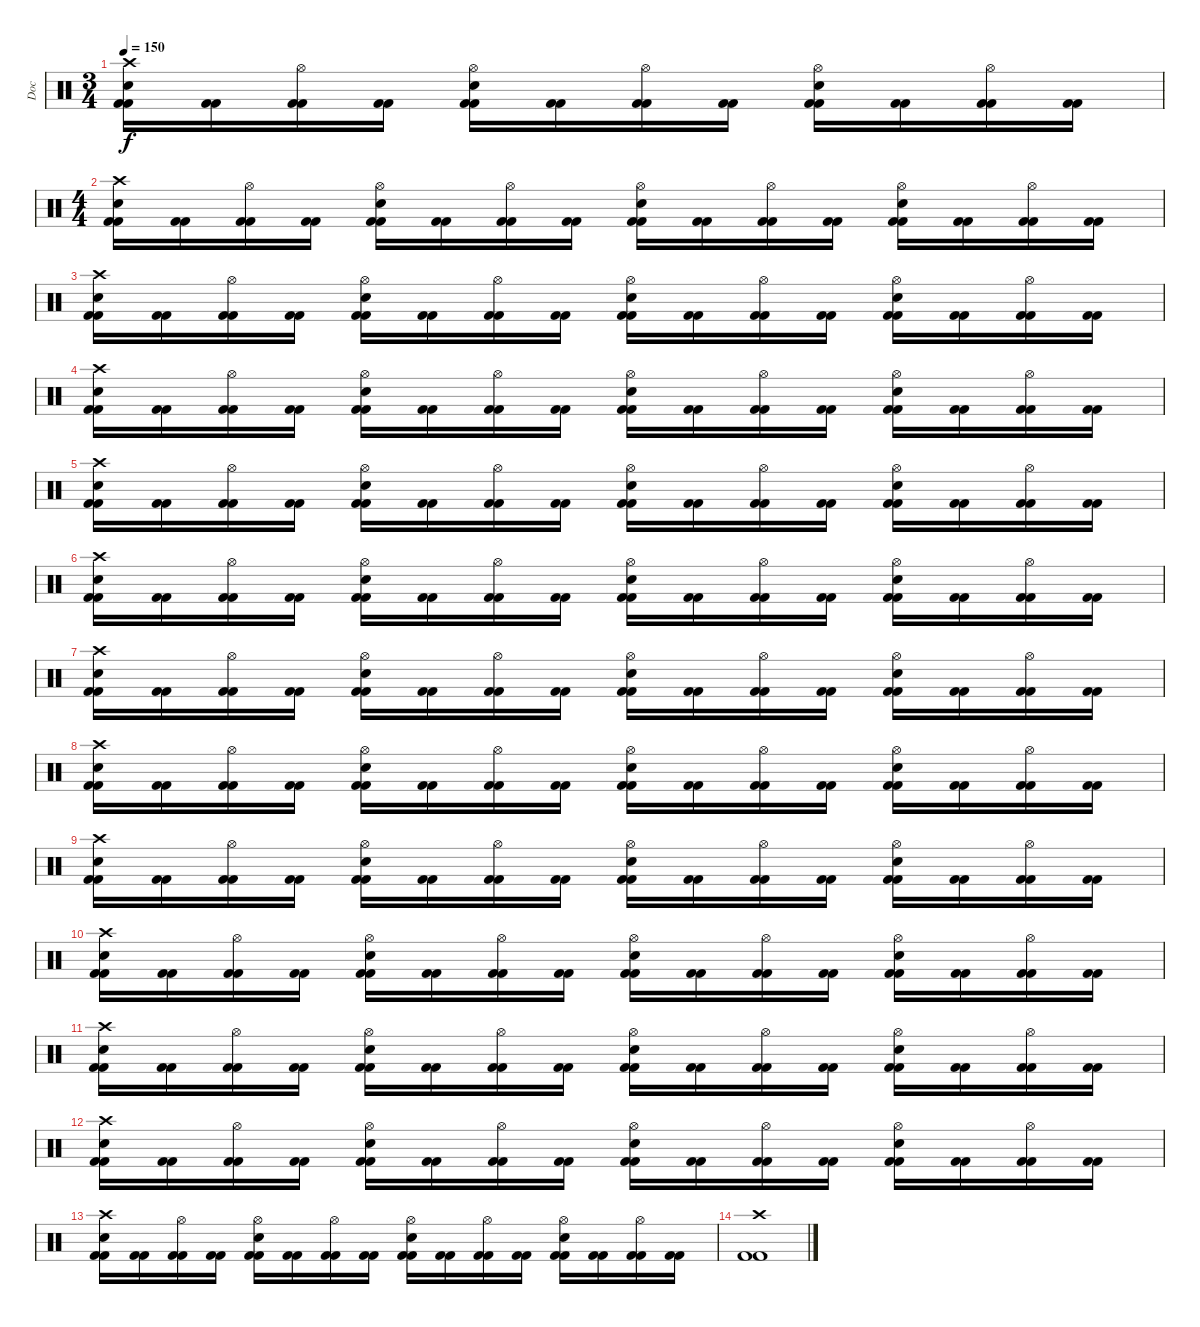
\track ("Doc" "Doc") {instrument percussion}
\staff {score}
\articulation defaults
\ts (3 4)
\tempo 150
\clef neutral
\ks c
("Kick (hit) 2" "Crash high (hit)" "Electric Snare (hit)" "Kick (hit) 2").16{dy f} ("Kick (hit) 2" "Kick (hit) 2").16 ("Kick (hit) 2" "Hi-Hat (open)" "Kick (hit) 2").16 ("Kick (hit) 2" "Kick (hit) 2").16 ("Kick (hit) 2" "Hi-Hat (open)" "Electric Snare (hit)" "Kick (hit) 2").16 ("Kick (hit) 2" "Kick (hit) 2").16 ("Kick (hit) 2" "Hi-Hat (open)" "Kick (hit) 2").16 ("Kick (hit) 2" "Kick (hit) 2").16 ("Kick (hit) 2" "Hi-Hat (open)" "Electric Snare (hit)" "Kick (hit) 2").16 ("Kick (hit) 2" "Kick (hit) 2").16 ("Kick (hit) 2" "Hi-Hat (open)" "Kick (hit) 2").16 ("Kick (hit) 2" "Kick (hit) 2").16 |
\ts (4 4)
("Kick (hit) 2" "Crash high (hit)" "Electric Snare (hit)" "Kick (hit) 2").16 ("Kick (hit) 2" "Kick (hit) 2").16 ("Kick (hit) 2" "Hi-Hat (open)" "Kick (hit) 2").16 ("Kick (hit) 2" "Kick (hit) 2").16 ("Kick (hit) 2" "Hi-Hat (open)" "Electric Snare (hit)" "Kick (hit) 2").16 ("Kick (hit) 2" "Kick (hit) 2").16 ("Kick (hit) 2" "Hi-Hat (open)" "Kick (hit) 2").16 ("Kick (hit) 2" "Kick (hit) 2").16 ("Kick (hit) 2" "Hi-Hat (open)" "Electric Snare (hit)" "Kick (hit) 2").16 ("Kick (hit) 2" "Kick (hit) 2").16 ("Kick (hit) 2" "Hi-Hat (open)" "Kick (hit) 2").16 ("Kick (hit) 2" "Kick (hit) 2").16 ("Kick (hit) 2" "Hi-Hat (open)" "Electric Snare (hit)" "Kick (hit) 2").16 ("Kick (hit) 2" "Kick (hit) 2").16 ("Kick (hit) 2" "Hi-Hat (open)" "Kick (hit) 2").16 ("Kick (hit) 2" "Kick (hit) 2").16 |
("Kick (hit) 2" "Crash high (hit)" "Electric Snare (hit)" "Kick (hit) 2").16 ("Kick (hit) 2" "Kick (hit) 2").16 ("Kick (hit) 2" "Hi-Hat (open)" "Kick (hit) 2").16 ("Kick (hit) 2" "Kick (hit) 2").16 ("Kick (hit) 2" "Hi-Hat (open)" "Electric Snare (hit)" "Kick (hit) 2").16 ("Kick (hit) 2" "Kick (hit) 2").16 ("Kick (hit) 2" "Hi-Hat (open)" "Kick (hit) 2").16 ("Kick (hit) 2" "Kick (hit) 2").16 ("Kick (hit) 2" "Hi-Hat (open)" "Electric Snare (hit)" "Kick (hit) 2").16 ("Kick (hit) 2" "Kick (hit) 2").16 ("Kick (hit) 2" "Hi-Hat (open)" "Kick (hit) 2").16 ("Kick (hit) 2" "Kick (hit) 2").16 ("Kick (hit) 2" "Hi-Hat (open)" "Electric Snare (hit)" "Kick (hit) 2").16 ("Kick (hit) 2" "Kick (hit) 2").16 ("Kick (hit) 2" "Hi-Hat (open)" "Kick (hit) 2").16 ("Kick (hit) 2" "Kick (hit) 2").16 |
("Kick (hit) 2" "Crash high (hit)" "Electric Snare (hit)" "Kick (hit) 2").16 ("Kick (hit) 2" "Kick (hit) 2").16 ("Kick (hit) 2" "Hi-Hat (open)" "Kick (hit) 2").16 ("Kick (hit) 2" "Kick (hit) 2").16 ("Kick (hit) 2" "Hi-Hat (open)" "Electric Snare (hit)" "Kick (hit) 2").16 ("Kick (hit) 2" "Kick (hit) 2").16 ("Kick (hit) 2" "Hi-Hat (open)" "Kick (hit) 2").16 ("Kick (hit) 2" "Kick (hit) 2").16 ("Kick (hit) 2" "Hi-Hat (open)" "Electric Snare (hit)" "Kick (hit) 2").16 ("Kick (hit) 2" "Kick (hit) 2").16 ("Kick (hit) 2" "Hi-Hat (open)" "Kick (hit) 2").16 ("Kick (hit) 2" "Kick (hit) 2").16 ("Kick (hit) 2" "Hi-Hat (open)" "Electric Snare (hit)" "Kick (hit) 2").16 ("Kick (hit) 2" "Kick (hit) 2").16 ("Kick (hit) 2" "Hi-Hat (open)" "Kick (hit) 2").16 ("Kick (hit) 2" "Kick (hit) 2").16 |
("Kick (hit) 2" "Crash high (hit)" "Electric Snare (hit)" "Kick (hit) 2").16 ("Kick (hit) 2" "Kick (hit) 2").16 ("Kick (hit) 2" "Hi-Hat (open)" "Kick (hit) 2").16 ("Kick (hit) 2" "Kick (hit) 2").16 ("Kick (hit) 2" "Hi-Hat (open)" "Electric Snare (hit)" "Kick (hit) 2").16 ("Kick (hit) 2" "Kick (hit) 2").16 ("Kick (hit) 2" "Hi-Hat (open)" "Kick (hit) 2").16 ("Kick (hit) 2" "Kick (hit) 2").16 ("Kick (hit) 2" "Hi-Hat (open)" "Electric Snare (hit)" "Kick (hit) 2").16 ("Kick (hit) 2" "Kick (hit) 2").16 ("Kick (hit) 2" "Hi-Hat (open)" "Kick (hit) 2").16 ("Kick (hit) 2" "Kick (hit) 2").16 ("Kick (hit) 2" "Hi-Hat (open)" "Electric Snare (hit)" "Kick (hit) 2").16 ("Kick (hit) 2" "Kick (hit) 2").16 ("Kick (hit) 2" "Hi-Hat (open)" "Kick (hit) 2").16 ("Kick (hit) 2" "Kick (hit) 2").16 |
("Kick (hit) 2" "Crash high (hit)" "Electric Snare (hit)" "Kick (hit) 2").16 ("Kick (hit) 2" "Kick (hit) 2").16 ("Kick (hit) 2" "Hi-Hat (open)" "Kick (hit) 2").16 ("Kick (hit) 2" "Kick (hit) 2").16 ("Kick (hit) 2" "Hi-Hat (open)" "Electric Snare (hit)" "Kick (hit) 2").16 ("Kick (hit) 2" "Kick (hit) 2").16 ("Kick (hit) 2" "Hi-Hat (open)" "Kick (hit) 2").16 ("Kick (hit) 2" "Kick (hit) 2").16 ("Kick (hit) 2" "Hi-Hat (open)" "Electric Snare (hit)" "Kick (hit) 2").16 ("Kick (hit) 2" "Kick (hit) 2").16 ("Kick (hit) 2" "Hi-Hat (open)" "Kick (hit) 2").16 ("Kick (hit) 2" "Kick (hit) 2").16 ("Kick (hit) 2" "Hi-Hat (open)" "Electric Snare (hit)" "Kick (hit) 2").16 ("Kick (hit) 2" "Kick (hit) 2").16 ("Kick (hit) 2" "Hi-Hat (open)" "Kick (hit) 2").16 ("Kick (hit) 2" "Kick (hit) 2").16 |
("Kick (hit) 2" "Crash high (hit)" "Electric Snare (hit)" "Kick (hit) 2").16 ("Kick (hit) 2" "Kick (hit) 2").16 ("Kick (hit) 2" "Hi-Hat (open)" "Kick (hit) 2").16 ("Kick (hit) 2" "Kick (hit) 2").16 ("Kick (hit) 2" "Hi-Hat (open)" "Electric Snare (hit)" "Kick (hit) 2").16 ("Kick (hit) 2" "Kick (hit) 2").16 ("Kick (hit) 2" "Hi-Hat (open)" "Kick (hit) 2").16 ("Kick (hit) 2" "Kick (hit) 2").16 ("Kick (hit) 2" "Hi-Hat (open)" "Electric Snare (hit)" "Kick (hit) 2").16 ("Kick (hit) 2" "Kick (hit) 2").16 ("Kick (hit) 2" "Hi-Hat (open)" "Kick (hit) 2").16 ("Kick (hit) 2" "Kick (hit) 2").16 ("Kick (hit) 2" "Hi-Hat (open)" "Electric Snare (hit)" "Kick (hit) 2").16 ("Kick (hit) 2" "Kick (hit) 2").16 ("Kick (hit) 2" "Hi-Hat (open)" "Kick (hit) 2").16 ("Kick (hit) 2" "Kick (hit) 2").16 |
("Kick (hit) 2" "Crash high (hit)" "Electric Snare (hit)" "Kick (hit) 2").16 ("Kick (hit) 2" "Kick (hit) 2").16 ("Kick (hit) 2" "Hi-Hat (open)" "Kick (hit) 2").16 ("Kick (hit) 2" "Kick (hit) 2").16 ("Kick (hit) 2" "Hi-Hat (open)" "Electric Snare (hit)" "Kick (hit) 2").16 ("Kick (hit) 2" "Kick (hit) 2").16 ("Kick (hit) 2" "Hi-Hat (open)" "Kick (hit) 2").16 ("Kick (hit) 2" "Kick (hit) 2").16 ("Kick (hit) 2" "Hi-Hat (open)" "Electric Snare (hit)" "Kick (hit) 2").16 ("Kick (hit) 2" "Kick (hit) 2").16 ("Kick (hit) 2" "Hi-Hat (open)" "Kick (hit) 2").16 ("Kick (hit) 2" "Kick (hit) 2").16 ("Kick (hit) 2" "Hi-Hat (open)" "Electric Snare (hit)" "Kick (hit) 2").16 ("Kick (hit) 2" "Kick (hit) 2").16 ("Kick (hit) 2" "Hi-Hat (open)" "Kick (hit) 2").16 ("Kick (hit) 2" "Kick (hit) 2").16 |
("Kick (hit) 2" "Crash high (hit)" "Electric Snare (hit)" "Kick (hit) 2").16 ("Kick (hit) 2" "Kick (hit) 2").16 ("Kick (hit) 2" "Hi-Hat (open)" "Kick (hit) 2").16 ("Kick (hit) 2" "Kick (hit) 2").16 ("Kick (hit) 2" "Hi-Hat (open)" "Electric Snare (hit)" "Kick (hit) 2").16 ("Kick (hit) 2" "Kick (hit) 2").16 ("Kick (hit) 2" "Hi-Hat (open)" "Kick (hit) 2").16 ("Kick (hit) 2" "Kick (hit) 2").16 ("Kick (hit) 2" "Hi-Hat (open)" "Electric Snare (hit)" "Kick (hit) 2").16 ("Kick (hit) 2" "Kick (hit) 2").16 ("Kick (hit) 2" "Hi-Hat (open)" "Kick (hit) 2").16 ("Kick (hit) 2" "Kick (hit) 2").16 ("Kick (hit) 2" "Hi-Hat (open)" "Electric Snare (hit)" "Kick (hit) 2").16 ("Kick (hit) 2" "Kick (hit) 2").16 ("Kick (hit) 2" "Hi-Hat (open)" "Kick (hit) 2").16 ("Kick (hit) 2" "Kick (hit) 2").16 |
("Kick (hit) 2" "Crash high (hit)" "Electric Snare (hit)" "Kick (hit) 2").16 ("Kick (hit) 2" "Kick (hit) 2").16 ("Kick (hit) 2" "Hi-Hat (open)" "Kick (hit) 2").16 ("Kick (hit) 2" "Kick (hit) 2").16 ("Kick (hit) 2" "Hi-Hat (open)" "Electric Snare (hit)" "Kick (hit) 2").16 ("Kick (hit) 2" "Kick (hit) 2").16 ("Kick (hit) 2" "Hi-Hat (open)" "Kick (hit) 2").16 ("Kick (hit) 2" "Kick (hit) 2").16 ("Kick (hit) 2" "Hi-Hat (open)" "Electric Snare (hit)" "Kick (hit) 2").16 ("Kick (hit) 2" "Kick (hit) 2").16 ("Kick (hit) 2" "Hi-Hat (open)" "Kick (hit) 2").16 ("Kick (hit) 2" "Kick (hit) 2").16 ("Kick (hit) 2" "Hi-Hat (open)" "Electric Snare (hit)" "Kick (hit) 2").16 ("Kick (hit) 2" "Kick (hit) 2").16 ("Kick (hit) 2" "Hi-Hat (open)" "Kick (hit) 2").16 ("Kick (hit) 2" "Kick (hit) 2").16 |
("Kick (hit) 2" "Crash high (hit)" "Electric Snare (hit)" "Kick (hit) 2").16 ("Kick (hit) 2" "Kick (hit) 2").16 ("Kick (hit) 2" "Hi-Hat (open)" "Kick (hit) 2").16 ("Kick (hit) 2" "Kick (hit) 2").16 ("Kick (hit) 2" "Hi-Hat (open)" "Electric Snare (hit)" "Kick (hit) 2").16 ("Kick (hit) 2" "Kick (hit) 2").16 ("Kick (hit) 2" "Hi-Hat (open)" "Kick (hit) 2").16 ("Kick (hit) 2" "Kick (hit) 2").16 ("Kick (hit) 2" "Hi-Hat (open)" "Electric Snare (hit)" "Kick (hit) 2").16 ("Kick (hit) 2" "Kick (hit) 2").16 ("Kick (hit) 2" "Hi-Hat (open)" "Kick (hit) 2").16 ("Kick (hit) 2" "Kick (hit) 2").16 ("Kick (hit) 2" "Hi-Hat (open)" "Electric Snare (hit)" "Kick (hit) 2").16 ("Kick (hit) 2" "Kick (hit) 2").16 ("Kick (hit) 2" "Hi-Hat (open)" "Kick (hit) 2").16 ("Kick (hit) 2" "Kick (hit) 2").16 |
("Kick (hit) 2" "Crash high (hit)" "Electric Snare (hit)" "Kick (hit) 2").16 ("Kick (hit) 2" "Kick (hit) 2").16 ("Kick (hit) 2" "Hi-Hat (open)" "Kick (hit) 2").16 ("Kick (hit) 2" "Kick (hit) 2").16 ("Kick (hit) 2" "Hi-Hat (open)" "Electric Snare (hit)" "Kick (hit) 2").16 ("Kick (hit) 2" "Kick (hit) 2").16 ("Kick (hit) 2" "Hi-Hat (open)" "Kick (hit) 2").16 ("Kick (hit) 2" "Kick (hit) 2").16 ("Kick (hit) 2" "Hi-Hat (open)" "Electric Snare (hit)" "Kick (hit) 2").16 ("Kick (hit) 2" "Kick (hit) 2").16 ("Kick (hit) 2" "Hi-Hat (open)" "Kick (hit) 2").16 ("Kick (hit) 2" "Kick (hit) 2").16 ("Kick (hit) 2" "Hi-Hat (open)" "Electric Snare (hit)" "Kick (hit) 2").16 ("Kick (hit) 2" "Kick (hit) 2").16 ("Kick (hit) 2" "Hi-Hat (open)" "Kick (hit) 2").16 ("Kick (hit) 2" "Kick (hit) 2").16 |
("Kick (hit) 2" "Crash high (hit)" "Electric Snare (hit)" "Kick (hit) 2").16 ("Kick (hit) 2" "Kick (hit) 2").16 ("Kick (hit) 2" "Hi-Hat (open)" "Kick (hit) 2").16 ("Kick (hit) 2" "Kick (hit) 2").16 ("Kick (hit) 2" "Hi-Hat (open)" "Electric Snare (hit)" "Kick (hit) 2").16 ("Kick (hit) 2" "Kick (hit) 2").16 ("Kick (hit) 2" "Hi-Hat (open)" "Kick (hit) 2").16 ("Kick (hit) 2" "Kick (hit) 2").16 ("Kick (hit) 2" "Hi-Hat (open)" "Electric Snare (hit)" "Kick (hit) 2").16 ("Kick (hit) 2" "Kick (hit) 2").16 ("Kick (hit) 2" "Hi-Hat (open)" "Kick (hit) 2").16 ("Kick (hit) 2" "Kick (hit) 2").16 ("Kick (hit) 2" "Hi-Hat (open)" "Electric Snare (hit)" "Kick (hit) 2").16 ("Kick (hit) 2" "Kick (hit) 2").16 ("Kick (hit) 2" "Hi-Hat (open)" "Kick (hit) 2").16 ("Kick (hit) 2" "Kick (hit) 2").16 |
("Crash high (hit)" "Kick (hit) 2" "Kick (hit) 2").1
